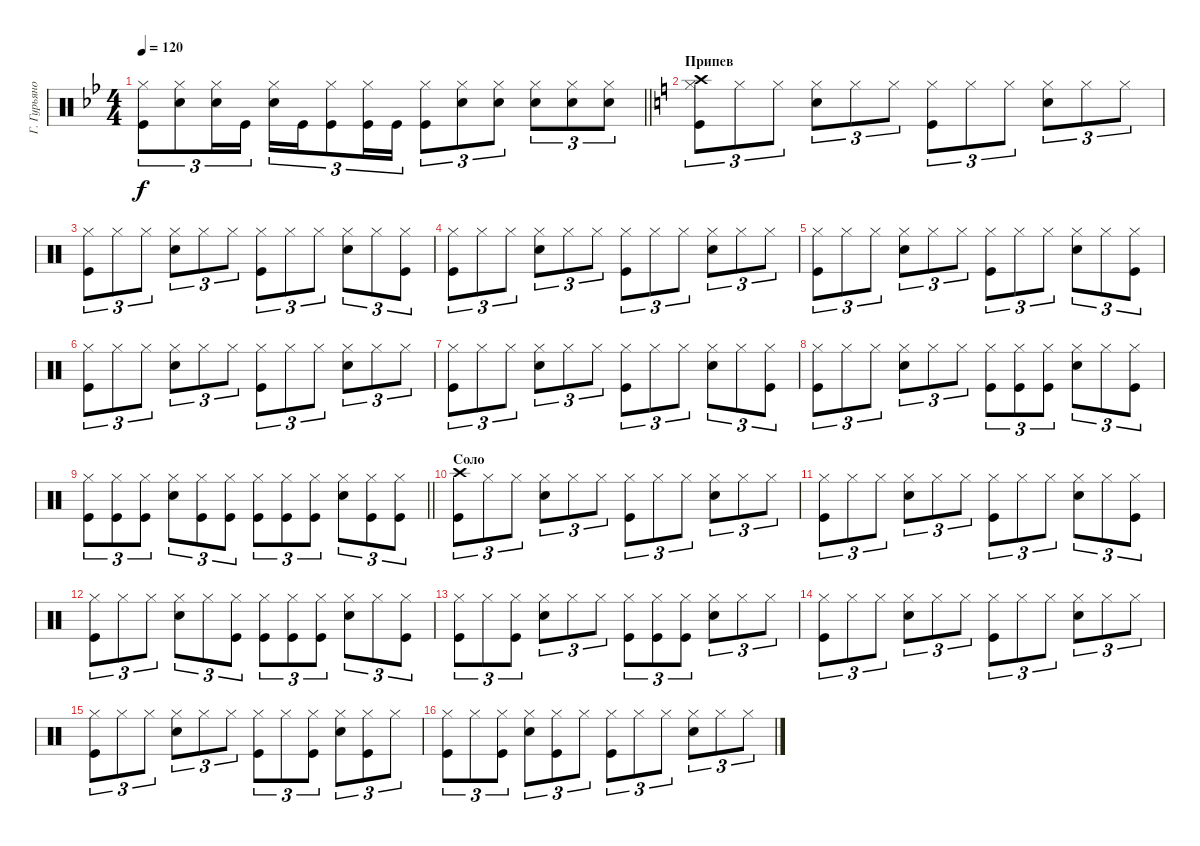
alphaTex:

\track ("Г. Гурьянов" "Г. Гурьяно") {instrument percussion}
\staff
\articulation defaults
\ts (4 4)
\tempo 120
\clef neutral
\barLineRight lightlight
\ks gminor
("Hi-Hat (closed)" "Kick (hit)").8{tu (3 2) dy f} ("Hi-Hat (closed)" "Snare (hit) 2").8{tu (3 2)} ("Hi-Hat (closed)" "Snare (hit) 2").16{tu (3 2)} "Kick (hit)".16{tu (3 2)} ("Hi-Hat (closed)" "Snare (hit) 2").16{tu (3 2)} "Kick (hit)".16{tu (3 2)} ("Hi-Hat (closed)" "Kick (hit)").8{tu (3 2)} ("Hi-Hat (closed)" "Kick (hit)").16{tu (3 2)} "Kick (hit)".16{tu (3 2)} ("Hi-Hat (closed)" "Kick (hit)").8{tu (3 2)} ("Hi-Hat (closed)" "Snare (hit) 2").8{tu (3 2)} ("Hi-Hat (closed)" "Snare (hit) 2").8{tu (3 2)} ("Hi-Hat (closed)" "Snare (hit) 2").8{tu (3 2)} ("Hi-Hat (closed)" "Snare (hit) 2").8{tu (3 2)} ("Hi-Hat (closed)" "Snare (hit) 2").8{tu (3 2)} |
\section ("" "Припев")
\ks c
("Hi-Hat (closed)" "Crash high (hit)" "Kick (hit)").8{tu (3 2)} "Hi-Hat (closed)".8{tu (3 2)} "Hi-Hat (closed)".8{tu (3 2)} ("Hi-Hat (closed)" "Snare (hit) 2").8{tu (3 2)} "Hi-Hat (closed)".8{tu (3 2)} "Hi-Hat (closed)".8{tu (3 2)} ("Hi-Hat (closed)" "Kick (hit)").8{tu (3 2)} "Hi-Hat (closed)".8{tu (3 2)} "Hi-Hat (closed)".8{tu (3 2)} ("Hi-Hat (closed)" "Snare (hit) 2").8{tu (3 2)} "Hi-Hat (closed)".8{tu (3 2)} "Hi-Hat (closed)".8{tu (3 2)} |
("Hi-Hat (closed)" "Kick (hit)").8{tu (3 2)} "Hi-Hat (closed)".8{tu (3 2)} "Hi-Hat (closed)".8{tu (3 2)} ("Hi-Hat (closed)" "Snare (hit) 2").8{tu (3 2)} "Hi-Hat (closed)".8{tu (3 2)} "Hi-Hat (closed)".8{tu (3 2)} ("Hi-Hat (closed)" "Kick (hit)").8{tu (3 2)} "Hi-Hat (closed)".8{tu (3 2)} "Hi-Hat (closed)".8{tu (3 2)} ("Hi-Hat (closed)" "Snare (hit) 2").8{tu (3 2)} "Hi-Hat (closed)".8{tu (3 2)} ("Hi-Hat (closed)" "Kick (hit)").8{tu (3 2)} |
("Hi-Hat (closed)" "Kick (hit)").8{tu (3 2)} "Hi-Hat (closed)".8{tu (3 2)} "Hi-Hat (closed)".8{tu (3 2)} ("Hi-Hat (closed)" "Snare (hit) 2").8{tu (3 2)} "Hi-Hat (closed)".8{tu (3 2)} "Hi-Hat (closed)".8{tu (3 2)} ("Hi-Hat (closed)" "Kick (hit)").8{tu (3 2)} "Hi-Hat (closed)".8{tu (3 2)} "Hi-Hat (closed)".8{tu (3 2)} ("Hi-Hat (closed)" "Snare (hit) 2").8{tu (3 2)} "Hi-Hat (closed)".8{tu (3 2)} "Hi-Hat (closed)".8{tu (3 2)} |
("Hi-Hat (closed)" "Kick (hit)").8{tu (3 2)} "Hi-Hat (closed)".8{tu (3 2)} "Hi-Hat (closed)".8{tu (3 2)} ("Hi-Hat (closed)" "Snare (hit) 2").8{tu (3 2)} "Hi-Hat (closed)".8{tu (3 2)} "Hi-Hat (closed)".8{tu (3 2)} ("Hi-Hat (closed)" "Kick (hit)").8{tu (3 2)} "Hi-Hat (closed)".8{tu (3 2)} "Hi-Hat (closed)".8{tu (3 2)} ("Hi-Hat (closed)" "Snare (hit) 2").8{tu (3 2)} "Hi-Hat (closed)".8{tu (3 2)} ("Hi-Hat (closed)" "Kick (hit)").8{tu (3 2)} |
("Hi-Hat (closed)" "Kick (hit)").8{tu (3 2)} "Hi-Hat (closed)".8{tu (3 2)} "Hi-Hat (closed)".8{tu (3 2)} ("Hi-Hat (closed)" "Snare (hit) 2").8{tu (3 2)} "Hi-Hat (closed)".8{tu (3 2)} "Hi-Hat (closed)".8{tu (3 2)} ("Hi-Hat (closed)" "Kick (hit)").8{tu (3 2)} "Hi-Hat (closed)".8{tu (3 2)} "Hi-Hat (closed)".8{tu (3 2)} ("Hi-Hat (closed)" "Snare (hit) 2").8{tu (3 2)} "Hi-Hat (closed)".8{tu (3 2)} "Hi-Hat (closed)".8{tu (3 2)} |
("Hi-Hat (closed)" "Kick (hit)").8{tu (3 2)} "Hi-Hat (closed)".8{tu (3 2)} "Hi-Hat (closed)".8{tu (3 2)} ("Hi-Hat (closed)" "Snare (hit) 2").8{tu (3 2)} "Hi-Hat (closed)".8{tu (3 2)} "Hi-Hat (closed)".8{tu (3 2)} ("Hi-Hat (closed)" "Kick (hit)").8{tu (3 2)} "Hi-Hat (closed)".8{tu (3 2)} "Hi-Hat (closed)".8{tu (3 2)} ("Hi-Hat (closed)" "Snare (hit) 2").8{tu (3 2)} "Hi-Hat (closed)".8{tu (3 2)} ("Hi-Hat (closed)" "Kick (hit)").8{tu (3 2)} |
("Hi-Hat (closed)" "Kick (hit)").8{tu (3 2)} "Hi-Hat (closed)".8{tu (3 2)} "Hi-Hat (closed)".8{tu (3 2)} ("Hi-Hat (closed)" "Snare (hit) 2").8{tu (3 2)} "Hi-Hat (closed)".8{tu (3 2)} "Hi-Hat (closed)".8{tu (3 2)} ("Hi-Hat (closed)" "Kick (hit)").8{tu (3 2)} ("Hi-Hat (closed)" "Kick (hit)").8{tu (3 2)} ("Hi-Hat (closed)" "Kick (hit)").8{tu (3 2)} ("Hi-Hat (closed)" "Snare (hit) 2").8{tu (3 2)} "Hi-Hat (closed)".8{tu (3 2)} ("Hi-Hat (closed)" "Kick (hit)").8{tu (3 2)} |
\barLineRight lightlight
("Hi-Hat (closed)" "Kick (hit)").8{tu (3 2)} ("Hi-Hat (closed)" "Kick (hit)").8{tu (3 2)} ("Hi-Hat (closed)" "Kick (hit)").8{tu (3 2)} ("Hi-Hat (closed)" "Snare (hit) 2").8{tu (3 2)} ("Hi-Hat (closed)" "Kick (hit)").8{tu (3 2)} ("Hi-Hat (closed)" "Kick (hit)").8{tu (3 2)} ("Hi-Hat (closed)" "Kick (hit)").8{tu (3 2)} ("Hi-Hat (closed)" "Kick (hit)").8{tu (3 2)} ("Hi-Hat (closed)" "Kick (hit)").8{tu (3 2)} ("Hi-Hat (closed)" "Snare (hit) 2").8{tu (3 2)} ("Hi-Hat (closed)" "Kick (hit)").8{tu (3 2)} ("Hi-Hat (closed)" "Kick (hit)").8{tu (3 2)} |
\section ("" "Соло")
("Kick (hit)" "Crash high (hit)").8{tu (3 2)} "Hi-Hat (closed)".8{tu (3 2)} "Hi-Hat (closed)".8{tu (3 2)} ("Hi-Hat (closed)" "Snare (hit) 2").8{tu (3 2)} "Hi-Hat (closed)".8{tu (3 2)} "Hi-Hat (closed)".8{tu (3 2)} ("Hi-Hat (closed)" "Kick (hit)").8{tu (3 2)} "Hi-Hat (closed)".8{tu (3 2)} "Hi-Hat (closed)".8{tu (3 2)} ("Hi-Hat (closed)" "Snare (hit) 2").8{tu (3 2)} "Hi-Hat (closed)".8{tu (3 2)} "Hi-Hat (closed)".8{tu (3 2)} |
("Hi-Hat (closed)" "Kick (hit)").8{tu (3 2)} "Hi-Hat (closed)".8{tu (3 2)} "Hi-Hat (closed)".8{tu (3 2)} ("Hi-Hat (closed)" "Snare (hit) 2").8{tu (3 2)} "Hi-Hat (closed)".8{tu (3 2)} "Hi-Hat (closed)".8{tu (3 2)} ("Hi-Hat (closed)" "Kick (hit)").8{tu (3 2)} "Hi-Hat (closed)".8{tu (3 2)} "Hi-Hat (closed)".8{tu (3 2)} ("Hi-Hat (closed)" "Snare (hit) 2").8{tu (3 2)} "Hi-Hat (closed)".8{tu (3 2)} ("Hi-Hat (closed)" "Kick (hit)").8{tu (3 2)} |
("Hi-Hat (closed)" "Kick (hit)").8{tu (3 2)} "Hi-Hat (closed)".8{tu (3 2)} "Hi-Hat (closed)".8{tu (3 2)} ("Hi-Hat (closed)" "Snare (hit) 2").8{tu (3 2)} "Hi-Hat (closed)".8{tu (3 2)} ("Hi-Hat (closed)" "Kick (hit)").8{tu (3 2)} ("Hi-Hat (closed)" "Kick (hit)").8{tu (3 2)} ("Hi-Hat (closed)" "Kick (hit)").8{tu (3 2)} ("Hi-Hat (closed)" "Kick (hit)").8{tu (3 2)} ("Hi-Hat (closed)" "Snare (hit) 2").8{tu (3 2)} "Hi-Hat (closed)".8{tu (3 2)} ("Hi-Hat (closed)" "Kick (hit)").8{tu (3 2)} |
("Hi-Hat (closed)" "Kick (hit)").8{tu (3 2)} "Hi-Hat (closed)".8{tu (3 2)} ("Hi-Hat (closed)" "Kick (hit)").8{tu (3 2)} ("Hi-Hat (closed)" "Snare (hit) 2").8{tu (3 2)} "Hi-Hat (closed)".8{tu (3 2)} "Hi-Hat (closed)".8{tu (3 2)} ("Hi-Hat (closed)" "Kick (hit)").8{tu (3 2)} ("Hi-Hat (closed)" "Kick (hit)").8{tu (3 2)} ("Hi-Hat (closed)" "Kick (hit)").8{tu (3 2)} ("Hi-Hat (closed)" "Snare (hit) 2").8{tu (3 2)} "Hi-Hat (closed)".8{tu (3 2)} "Hi-Hat (closed)".8{tu (3 2)} |
("Hi-Hat (closed)" "Kick (hit)").8{tu (3 2)} "Hi-Hat (closed)".8{tu (3 2)} "Hi-Hat (closed)".8{tu (3 2)} ("Hi-Hat (closed)" "Snare (hit) 2").8{tu (3 2)} "Hi-Hat (closed)".8{tu (3 2)} "Hi-Hat (closed)".8{tu (3 2)} ("Hi-Hat (closed)" "Kick (hit)").8{tu (3 2)} "Hi-Hat (closed)".8{tu (3 2)} "Hi-Hat (closed)".8{tu (3 2)} ("Hi-Hat (closed)" "Snare (hit) 2").8{tu (3 2)} "Hi-Hat (closed)".8{tu (3 2)} "Hi-Hat (closed)".8{tu (3 2)} |
("Hi-Hat (closed)" "Kick (hit)").8{tu (3 2)} "Hi-Hat (closed)".8{tu (3 2)} "Hi-Hat (closed)".8{tu (3 2)} ("Hi-Hat (closed)" "Snare (hit) 2").8{tu (3 2)} "Hi-Hat (closed)".8{tu (3 2)} "Hi-Hat (closed)".8{tu (3 2)} ("Hi-Hat (closed)" "Kick (hit)").8{tu (3 2)} "Hi-Hat (closed)".8{tu (3 2)} ("Hi-Hat (closed)" "Kick (hit)").8{tu (3 2)} ("Hi-Hat (closed)" "Snare (hit) 2").8{tu (3 2)} ("Hi-Hat (closed)" "Kick (hit)").8{tu (3 2)} "Hi-Hat (closed)".8{tu (3 2)} |
("Hi-Hat (closed)" "Kick (hit)").8{tu (3 2)} "Hi-Hat (closed)".8{tu (3 2)} ("Hi-Hat (closed)" "Kick (hit)").8{tu (3 2)} ("Hi-Hat (closed)" "Snare (hit) 2").8{tu (3 2)} ("Hi-Hat (closed)" "Kick (hit)").8{tu (3 2)} "Hi-Hat (closed)".8{tu (3 2)} ("Hi-Hat (closed)" "Kick (hit)").8{tu (3 2)} "Hi-Hat (closed)".8{tu (3 2)} "Hi-Hat (closed)".8{tu (3 2)} ("Hi-Hat (closed)" "Snare (hit) 2").8{tu (3 2)} "Hi-Hat (closed)".8{tu (3 2)} "Hi-Hat (closed)".8{tu (3 2)}
